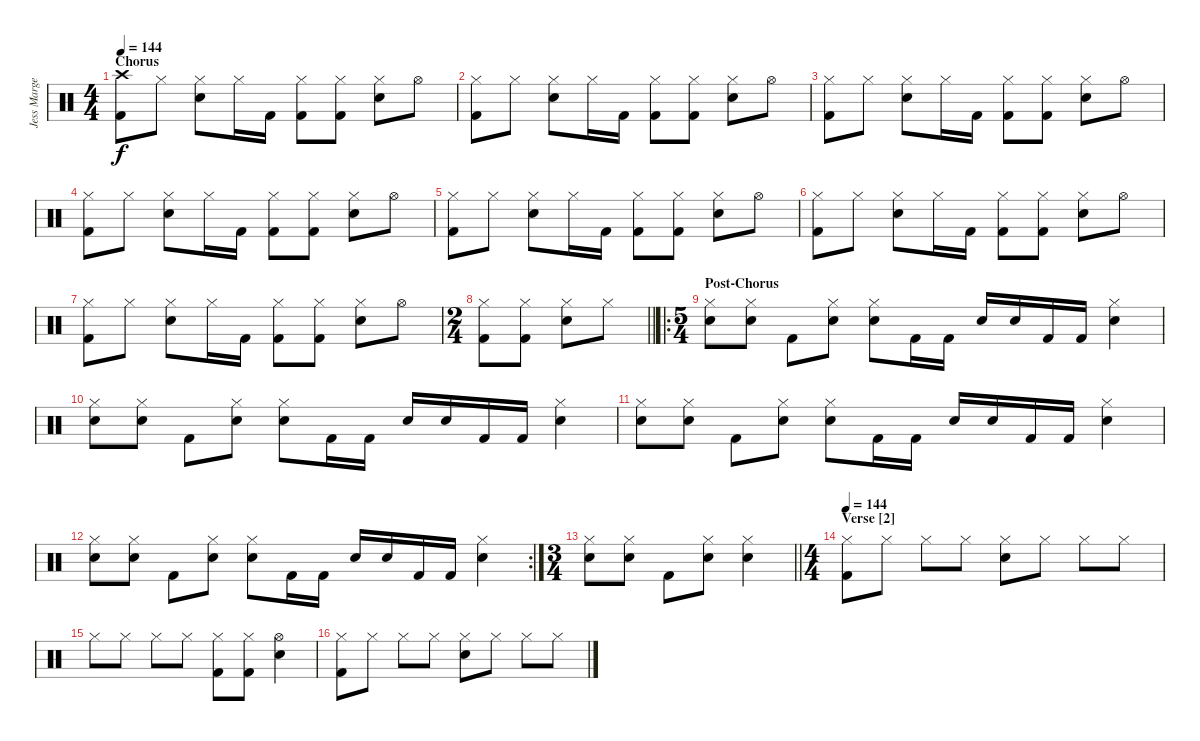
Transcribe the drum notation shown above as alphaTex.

\track ("Jess Margera" "Jess Marge") {instrument percussion}
\staff {score}
\articulation defaults
\ts (4 4)
\section ("" "Chorus")
\tempo 144
\clef neutral
\ks c
("Crash high (hit)" "Kick (hit) 2").8{dy f} "Hi-Hat (closed)".8 ("Hi-Hat (closed)" "Electric Snare (hit)").8 "Hi-Hat (closed)".16 "Kick (hit) 2".16 ("Hi-Hat (closed)" "Kick (hit) 2").8 ("Hi-Hat (closed)" "Kick (hit) 2").8 ("Hi-Hat (closed)" "Electric Snare (hit)").8 "Hi-Hat (open)".8 |
("Hi-Hat (closed)" "Kick (hit) 2").8 "Hi-Hat (closed)".8 ("Hi-Hat (closed)" "Electric Snare (hit)").8 "Hi-Hat (closed)".16 "Kick (hit) 2".16 ("Hi-Hat (closed)" "Kick (hit) 2").8 ("Hi-Hat (closed)" "Kick (hit) 2").8 ("Hi-Hat (closed)" "Electric Snare (hit)").8 "Hi-Hat (open)".8 |
("Hi-Hat (closed)" "Kick (hit) 2").8 "Hi-Hat (closed)".8 ("Hi-Hat (closed)" "Electric Snare (hit)").8 "Hi-Hat (closed)".16 "Kick (hit) 2".16 ("Hi-Hat (closed)" "Kick (hit) 2").8 ("Hi-Hat (closed)" "Kick (hit) 2").8 ("Hi-Hat (closed)" "Electric Snare (hit)").8 "Hi-Hat (open)".8 |
("Hi-Hat (closed)" "Kick (hit) 2").8 "Hi-Hat (closed)".8 ("Hi-Hat (closed)" "Electric Snare (hit)").8 "Hi-Hat (closed)".16 "Kick (hit) 2".16 ("Hi-Hat (closed)" "Kick (hit) 2").8 ("Hi-Hat (closed)" "Kick (hit) 2").8 ("Hi-Hat (closed)" "Electric Snare (hit)").8 "Hi-Hat (open)".8 |
("Hi-Hat (closed)" "Kick (hit) 2").8 "Hi-Hat (closed)".8 ("Hi-Hat (closed)" "Electric Snare (hit)").8 "Hi-Hat (closed)".16 "Kick (hit) 2".16 ("Hi-Hat (closed)" "Kick (hit) 2").8 ("Hi-Hat (closed)" "Kick (hit) 2").8 ("Hi-Hat (closed)" "Electric Snare (hit)").8 "Hi-Hat (open)".8 |
("Hi-Hat (closed)" "Kick (hit) 2").8 "Hi-Hat (closed)".8 ("Hi-Hat (closed)" "Electric Snare (hit)").8 "Hi-Hat (closed)".16 "Kick (hit) 2".16 ("Hi-Hat (closed)" "Kick (hit) 2").8 ("Hi-Hat (closed)" "Kick (hit) 2").8 ("Hi-Hat (closed)" "Electric Snare (hit)").8 "Hi-Hat (open)".8 |
("Hi-Hat (closed)" "Kick (hit) 2").8 "Hi-Hat (closed)".8 ("Hi-Hat (closed)" "Electric Snare (hit)").8 "Hi-Hat (closed)".16 "Kick (hit) 2".16 ("Hi-Hat (closed)" "Kick (hit) 2").8 ("Hi-Hat (closed)" "Kick (hit) 2").8 ("Hi-Hat (closed)" "Electric Snare (hit)").8 "Hi-Hat (open)".8 |
\ts (2 4)
\barLineRight lightlight
("Hi-Hat (closed)" "Kick (hit) 2").8 ("Hi-Hat (closed)" "Kick (hit) 2").8 ("Hi-Hat (closed)" "Electric Snare (hit)").8 "Hi-Hat (closed)".8 |
\ro
\ts (5 4)
\section ("" "Post-Chorus")
("Hi-Hat (closed)" "Electric Snare (hit)").8 ("Hi-Hat (closed)" "Electric Snare (hit)").8 "Kick (hit) 2".8 ("Hi-Hat (closed)" "Electric Snare (hit)").8 ("Hi-Hat (closed)" "Electric Snare (hit)").8 "Kick (hit) 2".16 "Kick (hit) 2".16 "Electric Snare (hit)".16 "Electric Snare (hit)".16 "Kick (hit) 2".16 "Kick (hit) 2".16 ("Hi-Hat (closed)" "Electric Snare (hit)").4 |
("Hi-Hat (closed)" "Electric Snare (hit)").8 ("Hi-Hat (closed)" "Electric Snare (hit)").8 "Kick (hit) 2".8 ("Hi-Hat (closed)" "Electric Snare (hit)").8 ("Hi-Hat (closed)" "Electric Snare (hit)").8 "Kick (hit) 2".16 "Kick (hit) 2".16 "Electric Snare (hit)".16 "Electric Snare (hit)".16 "Kick (hit) 2".16 "Kick (hit) 2".16 ("Hi-Hat (closed)" "Electric Snare (hit)").4 |
("Hi-Hat (closed)" "Electric Snare (hit)").8 ("Hi-Hat (closed)" "Electric Snare (hit)").8 "Kick (hit) 2".8 ("Hi-Hat (closed)" "Electric Snare (hit)").8 ("Hi-Hat (closed)" "Electric Snare (hit)").8 "Kick (hit) 2".16 "Kick (hit) 2".16 "Electric Snare (hit)".16 "Electric Snare (hit)".16 "Kick (hit) 2".16 "Kick (hit) 2".16 ("Hi-Hat (closed)" "Electric Snare (hit)").4 |
\rc 2
("Hi-Hat (closed)" "Electric Snare (hit)").8 ("Hi-Hat (closed)" "Electric Snare (hit)").8 "Kick (hit) 2".8 ("Hi-Hat (closed)" "Electric Snare (hit)").8 ("Hi-Hat (closed)" "Electric Snare (hit)").8 "Kick (hit) 2".16 "Kick (hit) 2".16 "Electric Snare (hit)".16 "Electric Snare (hit)".16 "Kick (hit) 2".16 "Kick (hit) 2".16 ("Hi-Hat (closed)" "Electric Snare (hit)").4 |
\ts (3 4)
\barLineRight lightlight
("Hi-Hat (closed)" "Electric Snare (hit)").8 ("Hi-Hat (closed)" "Electric Snare (hit)").8 "Kick (hit) 2".8 ("Hi-Hat (closed)" "Electric Snare (hit)").8 ("Hi-Hat (closed)" "Electric Snare (hit)").4 |
\ts (4 4)
\section ("" "Verse [2]")
\tempo 144
("Hi-Hat (closed)" "Kick (hit) 2").8 "Hi-Hat (closed)".8 "Hi-Hat (closed)".8 "Hi-Hat (closed)".8 ("Hi-Hat (closed)" "Electric Snare (hit)").8 "Hi-Hat (closed)".8 "Hi-Hat (closed)".8 "Hi-Hat (closed)".8 |
"Hi-Hat (closed)".8 "Hi-Hat (closed)".8 "Hi-Hat (closed)".8 "Hi-Hat (closed)".8 ("Hi-Hat (closed)" "Kick (hit) 2").8 ("Hi-Hat (closed)" "Kick (hit) 2").8 ("Hi-Hat (open)" "Electric Snare (hit)").4 |
("Hi-Hat (closed)" "Kick (hit) 2").8 "Hi-Hat (closed)".8 "Hi-Hat (closed)".8 "Hi-Hat (closed)".8 ("Hi-Hat (closed)" "Electric Snare (hit)").8 "Hi-Hat (closed)".8 "Hi-Hat (closed)".8 "Hi-Hat (closed)".8
